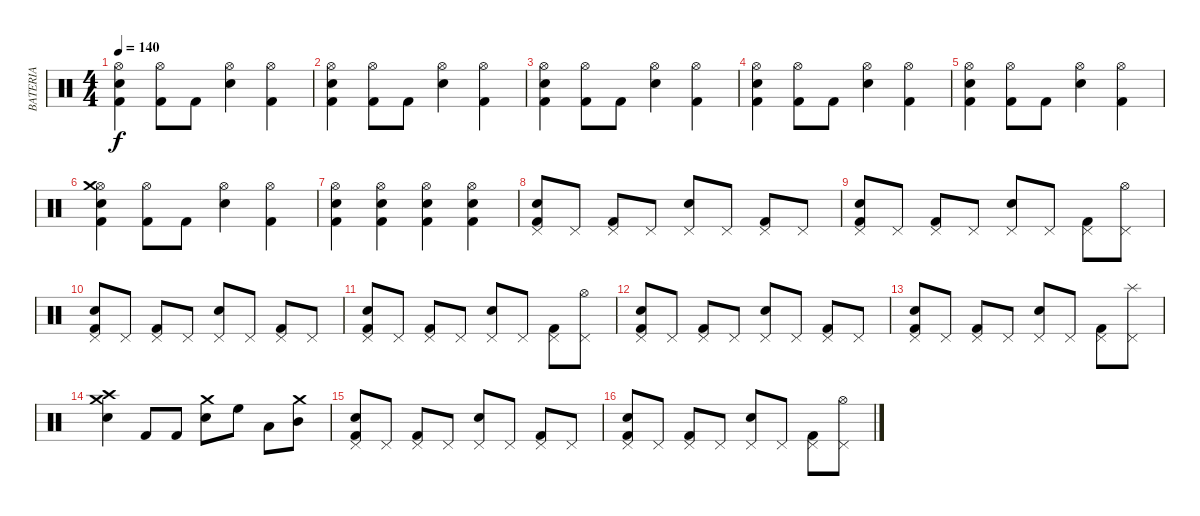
\track ("BATERIA" "BATERIA") {instrument percussion}
\staff {score}
\articulation defaults
\ts (4 4)
\tempo 140
\clef neutral
\ks c
("Kick (hit) 2" "Electric Snare (hit)" "Hi-Hat (open)").4{dy f} ("Kick (hit) 2" "Hi-Hat (open)").8 "Kick (hit) 2".8 ("Electric Snare (hit)" "Hi-Hat (open)").4 ("Kick (hit) 2" "Hi-Hat (open)").4 |
("Kick (hit) 2" "Electric Snare (hit)" "Hi-Hat (open)").4 ("Kick (hit) 2" "Hi-Hat (open)").8 "Kick (hit) 2".8 ("Electric Snare (hit)" "Hi-Hat (open)").4 ("Kick (hit) 2" "Hi-Hat (open)").4 |
("Kick (hit) 2" "Electric Snare (hit)" "Hi-Hat (open)").4 ("Kick (hit) 2" "Hi-Hat (open)").8 "Kick (hit) 2".8 ("Electric Snare (hit)" "Hi-Hat (open)").4 ("Kick (hit) 2" "Hi-Hat (open)").4 |
("Kick (hit) 2" "Electric Snare (hit)" "Hi-Hat (open)").4 ("Kick (hit) 2" "Hi-Hat (open)").8 "Kick (hit) 2".8 ("Electric Snare (hit)" "Hi-Hat (open)").4 ("Kick (hit) 2" "Hi-Hat (open)").4 |
("Kick (hit) 2" "Electric Snare (hit)" "Hi-Hat (open)").4 ("Kick (hit) 2" "Hi-Hat (open)").8 "Kick (hit) 2".8 ("Electric Snare (hit)" "Hi-Hat (open)").4 ("Kick (hit) 2" "Hi-Hat (open)").4 |
("Kick (hit) 2" "Electric Snare (hit)" "Hi-Hat (open)" "Crash medium (hit)").4 ("Kick (hit) 2" "Hi-Hat (open)").8 "Kick (hit) 2".8 ("Electric Snare (hit)" "Hi-Hat (open)").4 ("Kick (hit) 2" "Hi-Hat (open)").4 |
("Kick (hit) 2" "Electric Snare (hit)" "Hi-Hat (open)").4 ("Kick (hit) 2" "Electric Snare (hit)" "Hi-Hat (open)").4 ("Kick (hit) 2" "Electric Snare (hit)" "Hi-Hat (open)").4 ("Kick (hit) 2" "Electric Snare (hit)" "Hi-Hat (open)").4 |
("Kick (hit) 2" "Electric Snare (hit)" "Pedal Hi-Hat (hit)").8 "Pedal Hi-Hat (hit)".8 ("Kick (hit) 2" "Pedal Hi-Hat (hit)").8 "Pedal Hi-Hat (hit)".8 ("Electric Snare (hit)" "Pedal Hi-Hat (hit)").8 "Pedal Hi-Hat (hit)".8 ("Kick (hit) 2" "Pedal Hi-Hat (hit)").8 "Pedal Hi-Hat (hit)".8 |
("Kick (hit) 2" "Electric Snare (hit)" "Pedal Hi-Hat (hit)").8 "Pedal Hi-Hat (hit)".8 ("Kick (hit) 2" "Pedal Hi-Hat (hit)").8 "Pedal Hi-Hat (hit)".8 ("Electric Snare (hit)" "Pedal Hi-Hat (hit)").8 "Pedal Hi-Hat (hit)".8 ("Kick (hit) 2" "Pedal Hi-Hat (hit)").8 ("Pedal Hi-Hat (hit)" "Hi-Hat (open)").8 |
("Kick (hit) 2" "Electric Snare (hit)" "Pedal Hi-Hat (hit)").8 "Pedal Hi-Hat (hit)".8 ("Kick (hit) 2" "Pedal Hi-Hat (hit)").8 "Pedal Hi-Hat (hit)".8 ("Electric Snare (hit)" "Pedal Hi-Hat (hit)").8 "Pedal Hi-Hat (hit)".8 ("Kick (hit) 2" "Pedal Hi-Hat (hit)").8 "Pedal Hi-Hat (hit)".8 |
("Kick (hit) 2" "Electric Snare (hit)" "Pedal Hi-Hat (hit)").8 "Pedal Hi-Hat (hit)".8 ("Kick (hit) 2" "Pedal Hi-Hat (hit)").8 "Pedal Hi-Hat (hit)".8 ("Electric Snare (hit)" "Pedal Hi-Hat (hit)").8 "Pedal Hi-Hat (hit)".8 ("Kick (hit) 2" "Pedal Hi-Hat (hit)").8 ("Pedal Hi-Hat (hit)" "Hi-Hat (open)").8 |
("Kick (hit) 2" "Electric Snare (hit)" "Pedal Hi-Hat (hit)").8 "Pedal Hi-Hat (hit)".8 ("Kick (hit) 2" "Pedal Hi-Hat (hit)").8 "Pedal Hi-Hat (hit)".8 ("Electric Snare (hit)" "Pedal Hi-Hat (hit)").8 "Pedal Hi-Hat (hit)".8 ("Kick (hit) 2" "Pedal Hi-Hat (hit)").8 "Pedal Hi-Hat (hit)".8 |
("Kick (hit) 2" "Electric Snare (hit)" "Pedal Hi-Hat (hit)").8 "Pedal Hi-Hat (hit)".8 ("Kick (hit) 2" "Pedal Hi-Hat (hit)").8 "Pedal Hi-Hat (hit)".8 ("Electric Snare (hit)" "Pedal Hi-Hat (hit)").8 "Pedal Hi-Hat (hit)".8 ("Kick (hit) 2" "Pedal Hi-Hat (hit)").8 ("Pedal Hi-Hat (hit)" "Splash (hit)").8 |
("Electric Snare (hit)" "Crash medium (hit)" "Crash high (hit)").4 "Kick (hit) 2".8 "Kick (hit) 2".8 ("Electric Snare (hit)" "Crash medium (hit)").8 "High Floor Tom (hit)".8 "Low Tom (hit)".8 ("Mid Tom (hit)" "Crash medium (hit)").8 |
("Kick (hit) 2" "Electric Snare (hit)" "Pedal Hi-Hat (hit)").8 "Pedal Hi-Hat (hit)".8 ("Kick (hit) 2" "Pedal Hi-Hat (hit)").8 "Pedal Hi-Hat (hit)".8 ("Electric Snare (hit)" "Pedal Hi-Hat (hit)").8 "Pedal Hi-Hat (hit)".8 ("Kick (hit) 2" "Pedal Hi-Hat (hit)").8 "Pedal Hi-Hat (hit)".8 |
("Kick (hit) 2" "Electric Snare (hit)" "Pedal Hi-Hat (hit)").8 "Pedal Hi-Hat (hit)".8 ("Kick (hit) 2" "Pedal Hi-Hat (hit)").8 "Pedal Hi-Hat (hit)".8 ("Electric Snare (hit)" "Pedal Hi-Hat (hit)").8 "Pedal Hi-Hat (hit)".8 ("Kick (hit) 2" "Pedal Hi-Hat (hit)").8 ("Pedal Hi-Hat (hit)" "Hi-Hat (open)").8
